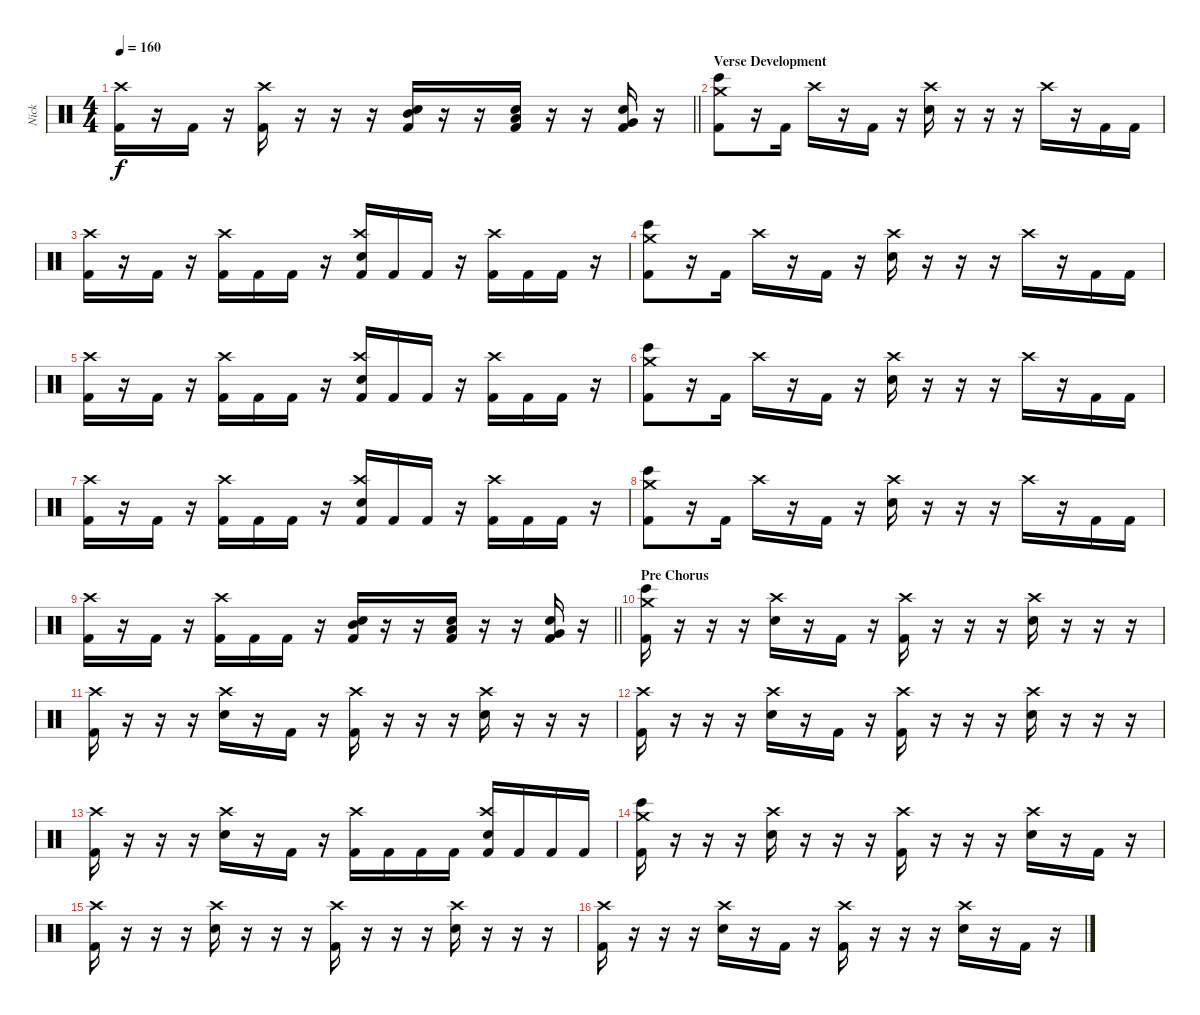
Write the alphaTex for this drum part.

\track ("Nick" "Nick") {instrument percussion}
\staff {score}
\articulation defaults
\ts (4 4)
\tempo 160
\clef neutral
\barLineRight lightlight
\ks c
("Kick (hit) 2" "Crash high (hit)").16{dy f} r.16 "Kick (hit) 2".16 r.16 ("Kick (hit) 2" "Crash high (hit)").16 r.16 r.16 r.16 ("Kick (hit) 2" "Electric Snare (hit)" "Mid Tom (hit)").16 r.16 r.16 ("Kick (hit) 2" "Electric Snare (hit)" "Low Tom (hit)").16 r.16 r.16 ("Kick (hit) 2" "Electric Snare (hit)" "Very Low Tom (hit)").16 r.16 |
\section ("" "Verse Development")
("Kick (hit) 2" "Bongo High (hit)" "Crash medium (hit)").8 r.16 "Kick (hit) 2".16 "Crash high (hit)".16 r.16 "Kick (hit) 2".16 r.16 ("Electric Snare (hit)" "Crash high (hit)").16 r.16 r.16 r.16 "Crash high (hit)".16 r.16 "Kick (hit) 2".16 "Kick (hit) 2".16 |
("Kick (hit) 2" "Crash high (hit)").16 r.16 "Kick (hit) 2".16 r.16 ("Kick (hit) 2" "Crash high (hit)").16 "Kick (hit) 2".16 "Kick (hit) 2".16 r.16 ("Kick (hit) 2" "Electric Snare (hit)" "Crash high (hit)").16 "Kick (hit) 2".16 "Kick (hit) 2".16 r.16 ("Kick (hit) 2" "Crash high (hit)").16 "Kick (hit) 2".16 "Kick (hit) 2".16 r.16 |
("Kick (hit) 2" "Bongo High (hit)" "Crash medium (hit)").8 r.16 "Kick (hit) 2".16 "Crash high (hit)".16 r.16 "Kick (hit) 2".16 r.16 ("Electric Snare (hit)" "Crash high (hit)").16 r.16 r.16 r.16 "Crash high (hit)".16 r.16 "Kick (hit) 2".16 "Kick (hit) 2".16 |
("Kick (hit) 2" "Crash high (hit)").16 r.16 "Kick (hit) 2".16 r.16 ("Kick (hit) 2" "Crash high (hit)").16 "Kick (hit) 2".16 "Kick (hit) 2".16 r.16 ("Kick (hit) 2" "Electric Snare (hit)" "Crash high (hit)").16 "Kick (hit) 2".16 "Kick (hit) 2".16 r.16 ("Kick (hit) 2" "Crash high (hit)").16 "Kick (hit) 2".16 "Kick (hit) 2".16 r.16 |
("Kick (hit) 2" "Bongo High (hit)" "Crash medium (hit)").8 r.16 "Kick (hit) 2".16 "Crash high (hit)".16 r.16 "Kick (hit) 2".16 r.16 ("Electric Snare (hit)" "Crash high (hit)").16 r.16 r.16 r.16 "Crash high (hit)".16 r.16 "Kick (hit) 2".16 "Kick (hit) 2".16 |
("Kick (hit) 2" "Crash high (hit)").16 r.16 "Kick (hit) 2".16 r.16 ("Kick (hit) 2" "Crash high (hit)").16 "Kick (hit) 2".16 "Kick (hit) 2".16 r.16 ("Kick (hit) 2" "Electric Snare (hit)" "Crash high (hit)").16 "Kick (hit) 2".16 "Kick (hit) 2".16 r.16 ("Kick (hit) 2" "Crash high (hit)").16 "Kick (hit) 2".16 "Kick (hit) 2".16 r.16 |
("Kick (hit) 2" "Bongo High (hit)" "Crash medium (hit)").8 r.16 "Kick (hit) 2".16 "Crash high (hit)".16 r.16 "Kick (hit) 2".16 r.16 ("Electric Snare (hit)" "Crash high (hit)").16 r.16 r.16 r.16 "Crash high (hit)".16 r.16 "Kick (hit) 2".16 "Kick (hit) 2".16 |
\barLineRight lightlight
("Kick (hit) 2" "Crash high (hit)").16 r.16 "Kick (hit) 2".16 r.16 ("Kick (hit) 2" "Crash high (hit)").16 "Kick (hit) 2".16 "Kick (hit) 2".16 r.16 ("Kick (hit) 2" "Electric Snare (hit)" "Mid Tom (hit)").16 r.16 r.16 ("Kick (hit) 2" "Electric Snare (hit)" "Low Tom (hit)").16 r.16 r.16 ("Kick (hit) 2" "Electric Snare (hit)" "Very Low Tom (hit)").16 r.16 |
\section ("" "Pre Chorus")
("Kick (hit) 2" "Bongo High (hit)" "Crash medium (hit)").16 r.16 r.16 r.16 ("Electric Snare (hit)" "Crash high (hit)").16 r.16 "Kick (hit) 2".16 r.16 ("Kick (hit) 2" "Crash high (hit)").16 r.16 r.16 r.16 ("Electric Snare (hit)" "Crash high (hit)").16 r.16 r.16 r.16 |
("Kick (hit) 2" "Crash high (hit)").16 r.16 r.16 r.16 ("Electric Snare (hit)" "Crash high (hit)").16 r.16 "Kick (hit) 2".16 r.16 ("Kick (hit) 2" "Crash high (hit)").16 r.16 r.16 r.16 ("Electric Snare (hit)" "Crash high (hit)").16 r.16 r.16 r.16 |
("Kick (hit) 2" "Crash high (hit)").16 r.16 r.16 r.16 ("Electric Snare (hit)" "Crash high (hit)").16 r.16 "Kick (hit) 2".16 r.16 ("Kick (hit) 2" "Crash high (hit)").16 r.16 r.16 r.16 ("Electric Snare (hit)" "Crash high (hit)").16 r.16 r.16 r.16 |
("Kick (hit) 2" "Crash high (hit)").16 r.16 r.16 r.16 ("Electric Snare (hit)" "Crash high (hit)").16 r.16 "Kick (hit) 2".16 r.16 ("Kick (hit) 2" "Crash high (hit)").16 "Kick (hit) 2".16 "Kick (hit) 2".16 "Kick (hit) 2".16 ("Kick (hit) 2" "Electric Snare (hit)" "Crash high (hit)").16 "Kick (hit) 2".16 "Kick (hit) 2".16 "Kick (hit) 2".16 |
("Kick (hit) 2" "Bongo High (hit)" "Crash medium (hit)").16 r.16 r.16 r.16 ("Electric Snare (hit)" "Crash high (hit)").16 r.16 r.16 r.16 ("Kick (hit) 2" "Crash high (hit)").16 r.16 r.16 r.16 ("Electric Snare (hit)" "Crash high (hit)").16 r.16 "Kick (hit) 2".16 r.16 |
("Kick (hit) 2" "Crash high (hit)").16 r.16 r.16 r.16 ("Electric Snare (hit)" "Crash high (hit)").16 r.16 r.16 r.16 ("Kick (hit) 2" "Crash high (hit)").16 r.16 r.16 r.16 ("Electric Snare (hit)" "Crash high (hit)").16 r.16 r.16 r.16 |
("Kick (hit) 2" "Crash high (hit)").16 r.16 r.16 r.16 ("Electric Snare (hit)" "Crash high (hit)").16 r.16 "Kick (hit) 2".16 r.16 ("Kick (hit) 2" "Crash high (hit)").16 r.16 r.16 r.16 ("Electric Snare (hit)" "Crash high (hit)").16 r.16 "Kick (hit) 2".16 r.16
